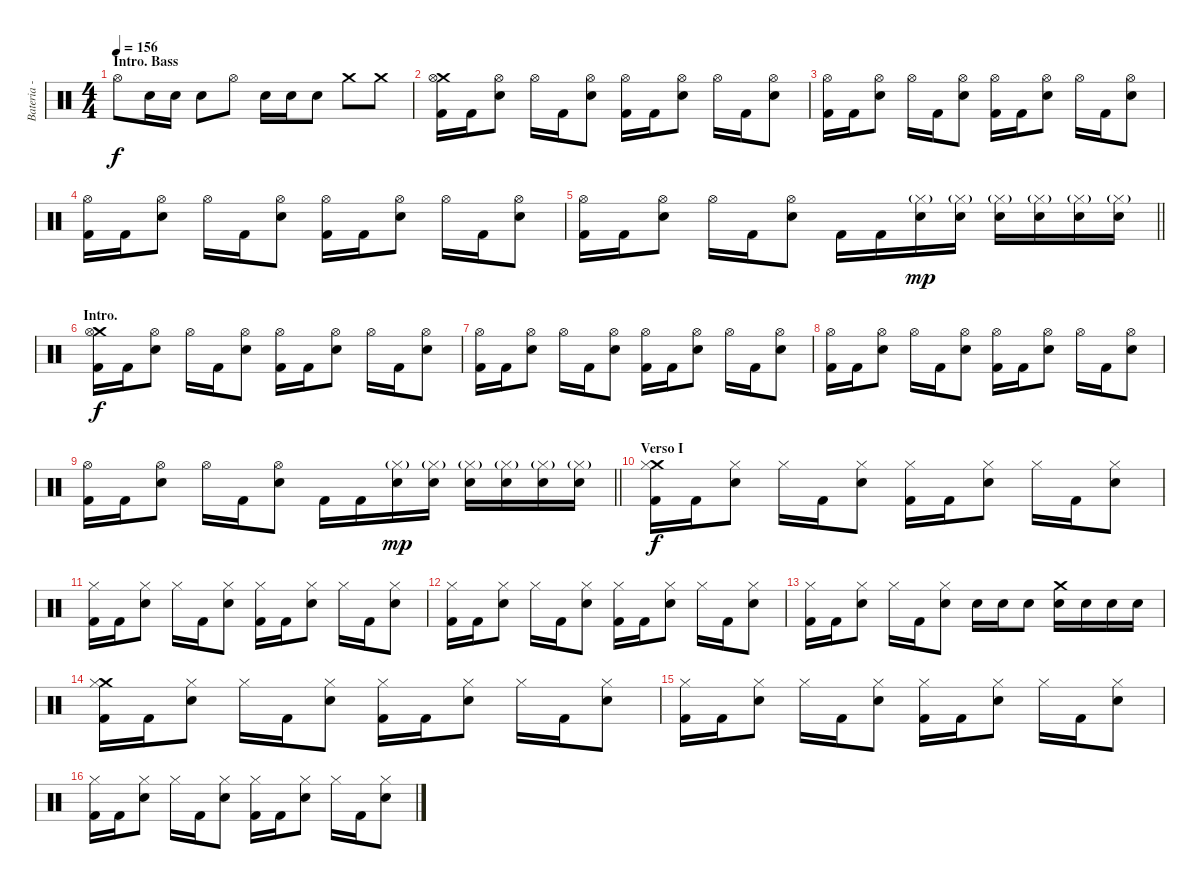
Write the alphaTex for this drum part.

\track ("Bateria - Larzon" "Bateria - ") {instrument percussion}
\staff {score}
\articulation defaults
\ts (4 4)
\section ("" "Intro. Bass")
\tempo 156
\clef neutral
\ks c "Hi-Hat (open)".8{dy f} "Snare (hit) 2".16 "Snare (hit) 2".16 "Snare (hit) 2".8 "Hi-Hat (open)".8 "Snare (hit) 2".16 "Snare (hit) 2".16 "Snare (hit) 2".8 "Crash medium (hit)".8 "Crash medium (hit)".8
|
("Crash medium (hit)" "Kick (hit) 2" "Hi-Hat (open)").16 "Kick (hit) 2".16 ("Snare (hit) 2" "Hi-Hat (open)").8 "Hi-Hat (open)".16 "Kick (hit) 2".16 ("Snare (hit) 2" "Hi-Hat (open)").8 ("Kick (hit) 2" "Hi-Hat (open)").16 "Kick (hit) 2".16 ("Snare (hit) 2" "Hi-Hat (open)").8 "Hi-Hat (open)".16 "Kick (hit) 2".16 ("Snare (hit) 2" "Hi-Hat (open)").8 |
("Kick (hit) 2" "Hi-Hat (open)").16 "Kick (hit) 2".16 ("Snare (hit) 2" "Hi-Hat (open)").8 "Hi-Hat (open)".16 "Kick (hit) 2".16 ("Snare (hit) 2" "Hi-Hat (open)").8 ("Kick (hit) 2" "Hi-Hat (open)").16 "Kick (hit) 2".16 ("Snare (hit) 2" "Hi-Hat (open)").8 "Hi-Hat (open)".16 "Kick (hit) 2".16 ("Snare (hit) 2" "Hi-Hat (open)").8 |
("Kick (hit) 2" "Hi-Hat (open)").16 "Kick (hit) 2".16 ("Snare (hit) 2" "Hi-Hat (open)").8 "Hi-Hat (open)".16 "Kick (hit) 2".16 ("Snare (hit) 2" "Hi-Hat (open)").8 ("Kick (hit) 2" "Hi-Hat (open)").16 "Kick (hit) 2".16 ("Snare (hit) 2" "Hi-Hat (open)").8 "Hi-Hat (open)".16 "Kick (hit) 2".16 ("Snare (hit) 2" "Hi-Hat (open)").8 |
\barLineRight lightlight
("Kick (hit) 2" "Hi-Hat (open)").16 "Kick (hit) 2".16 ("Snare (hit) 2" "Hi-Hat (open)").8 "Hi-Hat (open)".16 "Kick (hit) 2".16 ("Snare (hit) 2" "Hi-Hat (open)").8 "Kick (hit) 2".16 "Kick (hit) 2".16 ("Snare (hit) 2" "Hi-Hat (closed)"{g}).16{dy mp} ("Snare (hit) 2" "Hi-Hat (closed)"{g}).16 ("Snare (hit) 2" "Hi-Hat (closed)"{g}).16 ("Snare (hit) 2" "Hi-Hat (closed)"{g}).16 ("Snare (hit) 2" "Hi-Hat (closed)"{g}).16 ("Snare (hit) 2" "Hi-Hat (closed)"{g}).16 |
\section ("" "Intro.")
("Crash medium (hit)" "Kick (hit) 2" "Hi-Hat (open)").16{dy f} "Kick (hit) 2".16 ("Snare (hit) 2" "Hi-Hat (open)").8 "Hi-Hat (open)".16 "Kick (hit) 2".16 ("Snare (hit) 2" "Hi-Hat (open)").8 ("Kick (hit) 2" "Hi-Hat (open)").16 "Kick (hit) 2".16 ("Snare (hit) 2" "Hi-Hat (open)").8 "Hi-Hat (open)".16 "Kick (hit) 2".16 ("Snare (hit) 2" "Hi-Hat (open)").8 |
("Kick (hit) 2" "Hi-Hat (open)").16 "Kick (hit) 2".16 ("Snare (hit) 2" "Hi-Hat (open)").8 "Hi-Hat (open)".16 "Kick (hit) 2".16 ("Snare (hit) 2" "Hi-Hat (open)").8 ("Kick (hit) 2" "Hi-Hat (open)").16 "Kick (hit) 2".16 ("Snare (hit) 2" "Hi-Hat (open)").8 "Hi-Hat (open)".16 "Kick (hit) 2".16 ("Snare (hit) 2" "Hi-Hat (open)").8 |
("Kick (hit) 2" "Hi-Hat (open)").16 "Kick (hit) 2".16 ("Snare (hit) 2" "Hi-Hat (open)").8 "Hi-Hat (open)".16 "Kick (hit) 2".16 ("Snare (hit) 2" "Hi-Hat (open)").8 ("Kick (hit) 2" "Hi-Hat (open)").16 "Kick (hit) 2".16 ("Snare (hit) 2" "Hi-Hat (open)").8 "Hi-Hat (open)".16 "Kick (hit) 2".16 ("Snare (hit) 2" "Hi-Hat (open)").8 |
\barLineRight lightlight
("Kick (hit) 2" "Hi-Hat (open)").16 "Kick (hit) 2".16 ("Snare (hit) 2" "Hi-Hat (open)").8 "Hi-Hat (open)".16 "Kick (hit) 2".16 ("Snare (hit) 2" "Hi-Hat (open)").8 "Kick (hit) 2".16 "Kick (hit) 2".16 ("Snare (hit) 2" "Hi-Hat (closed)"{g}).16{dy mp} ("Snare (hit) 2" "Hi-Hat (closed)"{g}).16 ("Snare (hit) 2" "Hi-Hat (closed)"{g}).16 ("Snare (hit) 2" "Hi-Hat (closed)"{g}).16 ("Snare (hit) 2" "Hi-Hat (closed)"{g}).16 ("Snare (hit) 2" "Hi-Hat (closed)"{g}).16 |
\section ("" "Verso I")
("Crash medium (hit)" "Kick (hit) 2" "Hi-Hat (closed)").16{dy f} "Kick (hit) 2".16 ("Snare (hit) 2" "Hi-Hat (closed)").8 "Hi-Hat (closed)".16 "Kick (hit) 2".16 ("Snare (hit) 2" "Hi-Hat (closed)").8 ("Kick (hit) 2" "Hi-Hat (closed)").16 "Kick (hit) 2".16 ("Snare (hit) 2" "Hi-Hat (closed)").8 "Hi-Hat (closed)".16 "Kick (hit) 2".16 ("Snare (hit) 2" "Hi-Hat (closed)").8 |
("Kick (hit) 2" "Hi-Hat (closed)").16 "Kick (hit) 2".16 ("Snare (hit) 2" "Hi-Hat (closed)").8 "Hi-Hat (closed)".16 "Kick (hit) 2".16 ("Snare (hit) 2" "Hi-Hat (closed)").8 ("Kick (hit) 2" "Hi-Hat (closed)").16 "Kick (hit) 2".16 ("Snare (hit) 2" "Hi-Hat (closed)").8 "Hi-Hat (closed)".16 "Kick (hit) 2".16 ("Snare (hit) 2" "Hi-Hat (closed)").8 |
("Kick (hit) 2" "Hi-Hat (closed)").16 "Kick (hit) 2".16 ("Snare (hit) 2" "Hi-Hat (closed)").8 "Hi-Hat (closed)".16 "Kick (hit) 2".16 ("Snare (hit) 2" "Hi-Hat (closed)").8 ("Kick (hit) 2" "Hi-Hat (closed)").16 "Kick (hit) 2".16 ("Snare (hit) 2" "Hi-Hat (closed)").8 "Hi-Hat (closed)".16 "Kick (hit) 2".16 ("Snare (hit) 2" "Hi-Hat (closed)").8 |
("Kick (hit) 2" "Hi-Hat (closed)").16 "Kick (hit) 2".16 ("Snare (hit) 2" "Hi-Hat (closed)").8 "Hi-Hat (closed)".16 "Kick (hit) 2".16 ("Snare (hit) 2" "Hi-Hat (closed)").8 "Snare (hit) 2".16 "Snare (hit) 2".16 "Snare (hit) 2".8 ("Crash medium (hit)" "Snare (hit) 2").16 "Snare (hit) 2".16 "Snare (hit) 2".16 "Snare (hit) 2".16 |
("Crash medium (hit)" "Kick (hit) 2" "Hi-Hat (closed)").16 "Kick (hit) 2".16 ("Snare (hit) 2" "Hi-Hat (closed)").8 "Hi-Hat (closed)".16 "Kick (hit) 2".16 ("Snare (hit) 2" "Hi-Hat (closed)").8 ("Kick (hit) 2" "Hi-Hat (closed)").16 "Kick (hit) 2".16 ("Snare (hit) 2" "Hi-Hat (closed)").8 "Hi-Hat (closed)".16 "Kick (hit) 2".16 ("Snare (hit) 2" "Hi-Hat (closed)").8 |
("Kick (hit) 2" "Hi-Hat (closed)").16 "Kick (hit) 2".16 ("Snare (hit) 2" "Hi-Hat (closed)").8 "Hi-Hat (closed)".16 "Kick (hit) 2".16 ("Snare (hit) 2" "Hi-Hat (closed)").8 ("Kick (hit) 2" "Hi-Hat (closed)").16 "Kick (hit) 2".16 ("Snare (hit) 2" "Hi-Hat (closed)").8 "Hi-Hat (closed)".16 "Kick (hit) 2".16 ("Snare (hit) 2" "Hi-Hat (closed)").8 |
("Kick (hit) 2" "Hi-Hat (closed)").16 "Kick (hit) 2".16 ("Snare (hit) 2" "Hi-Hat (closed)").8 "Hi-Hat (closed)".16 "Kick (hit) 2".16 ("Snare (hit) 2" "Hi-Hat (closed)").8 ("Kick (hit) 2" "Hi-Hat (closed)").16 "Kick (hit) 2".16 ("Snare (hit) 2" "Hi-Hat (closed)").8 "Hi-Hat (closed)".16 "Kick (hit) 2".16 ("Snare (hit) 2" "Hi-Hat (closed)").8
